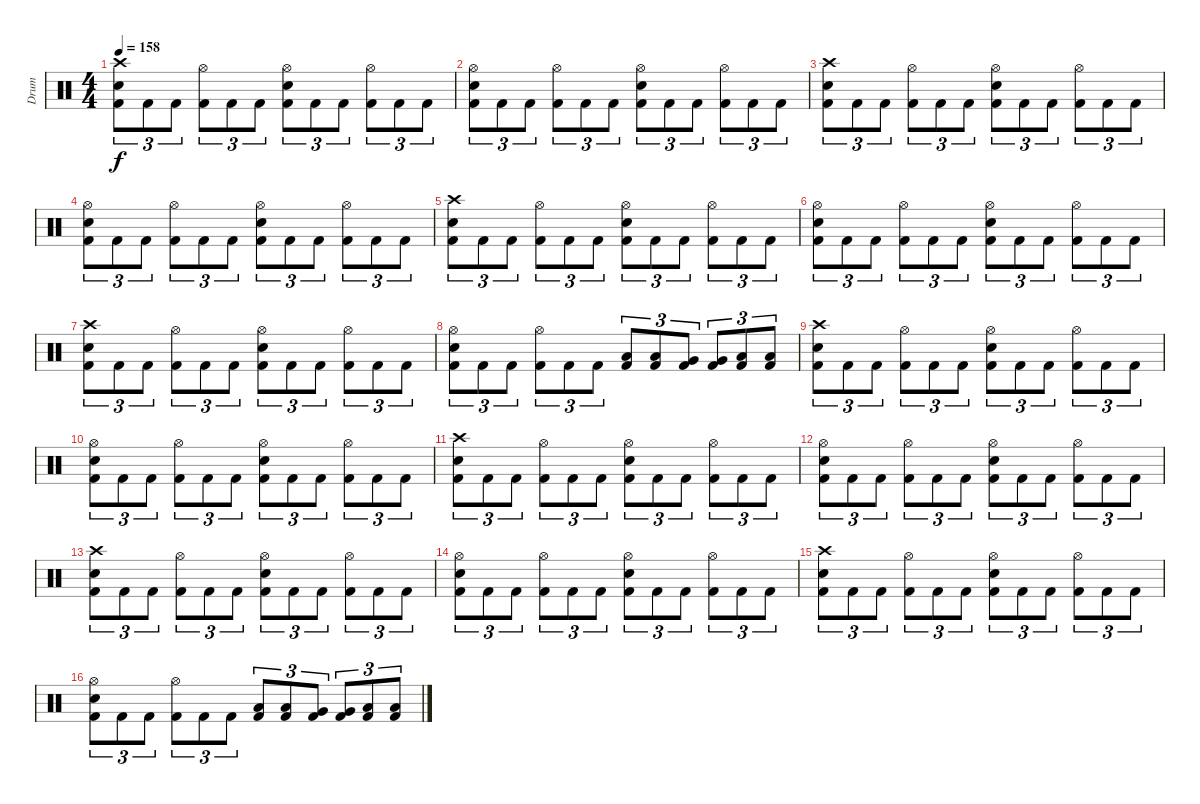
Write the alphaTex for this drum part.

\track ("Drum" "Drum") {instrument percussion}
\staff {score}
\articulation defaults
\ts (4 4)
\tempo 158
\clef neutral
\ks c
("Crash high (hit)" "Electric Snare (hit)" "Kick (hit) 2").8{tu (3 2) dy f} "Kick (hit) 2".8{tu (3 2)} "Kick (hit) 2".8{tu (3 2)} ("Hi-Hat (open)" "Kick (hit) 2").8{tu (3 2)} "Kick (hit) 2".8{tu (3 2)} "Kick (hit) 2".8{tu (3 2)} ("Hi-Hat (open)" "Electric Snare (hit)" "Kick (hit) 2").8{tu (3 2)} "Kick (hit) 2".8{tu (3 2)} "Kick (hit) 2".8{tu (3 2)} ("Hi-Hat (open)" "Kick (hit) 2").8{tu (3 2)} "Kick (hit) 2".8{tu (3 2)} "Kick (hit) 2".8{tu (3 2)} |
("Hi-Hat (open)" "Electric Snare (hit)" "Kick (hit) 2").8{tu (3 2)} "Kick (hit) 2".8{tu (3 2)} "Kick (hit) 2".8{tu (3 2)} ("Hi-Hat (open)" "Kick (hit) 2").8{tu (3 2)} "Kick (hit) 2".8{tu (3 2)} "Kick (hit) 2".8{tu (3 2)} ("Hi-Hat (open)" "Electric Snare (hit)" "Kick (hit) 2").8{tu (3 2)} "Kick (hit) 2".8{tu (3 2)} "Kick (hit) 2".8{tu (3 2)} ("Hi-Hat (open)" "Kick (hit) 2").8{tu (3 2)} "Kick (hit) 2".8{tu (3 2)} "Kick (hit) 2".8{tu (3 2)} |
("Crash high (hit)" "Electric Snare (hit)" "Kick (hit) 2").8{tu (3 2)} "Kick (hit) 2".8{tu (3 2)} "Kick (hit) 2".8{tu (3 2)} ("Hi-Hat (open)" "Kick (hit) 2").8{tu (3 2)} "Kick (hit) 2".8{tu (3 2)} "Kick (hit) 2".8{tu (3 2)} ("Hi-Hat (open)" "Electric Snare (hit)" "Kick (hit) 2").8{tu (3 2)} "Kick (hit) 2".8{tu (3 2)} "Kick (hit) 2".8{tu (3 2)} ("Hi-Hat (open)" "Kick (hit) 2").8{tu (3 2)} "Kick (hit) 2".8{tu (3 2)} "Kick (hit) 2".8{tu (3 2)} |
("Hi-Hat (open)" "Electric Snare (hit)" "Kick (hit) 2").8{tu (3 2)} "Kick (hit) 2".8{tu (3 2)} "Kick (hit) 2".8{tu (3 2)} ("Hi-Hat (open)" "Kick (hit) 2").8{tu (3 2)} "Kick (hit) 2".8{tu (3 2)} "Kick (hit) 2".8{tu (3 2)} ("Hi-Hat (open)" "Electric Snare (hit)" "Kick (hit) 2").8{tu (3 2)} "Kick (hit) 2".8{tu (3 2)} "Kick (hit) 2".8{tu (3 2)} ("Hi-Hat (open)" "Kick (hit) 2").8{tu (3 2)} "Kick (hit) 2".8{tu (3 2)} "Kick (hit) 2".8{tu (3 2)} |
("Crash high (hit)" "Electric Snare (hit)" "Kick (hit) 2").8{tu (3 2)} "Kick (hit) 2".8{tu (3 2)} "Kick (hit) 2".8{tu (3 2)} ("Hi-Hat (open)" "Kick (hit) 2").8{tu (3 2)} "Kick (hit) 2".8{tu (3 2)} "Kick (hit) 2".8{tu (3 2)} ("Hi-Hat (open)" "Electric Snare (hit)" "Kick (hit) 2").8{tu (3 2)} "Kick (hit) 2".8{tu (3 2)} "Kick (hit) 2".8{tu (3 2)} ("Hi-Hat (open)" "Kick (hit) 2").8{tu (3 2)} "Kick (hit) 2".8{tu (3 2)} "Kick (hit) 2".8{tu (3 2)} |
("Hi-Hat (open)" "Electric Snare (hit)" "Kick (hit) 2").8{tu (3 2)} "Kick (hit) 2".8{tu (3 2)} "Kick (hit) 2".8{tu (3 2)} ("Hi-Hat (open)" "Kick (hit) 2").8{tu (3 2)} "Kick (hit) 2".8{tu (3 2)} "Kick (hit) 2".8{tu (3 2)} ("Hi-Hat (open)" "Electric Snare (hit)" "Kick (hit) 2").8{tu (3 2)} "Kick (hit) 2".8{tu (3 2)} "Kick (hit) 2".8{tu (3 2)} ("Hi-Hat (open)" "Kick (hit) 2").8{tu (3 2)} "Kick (hit) 2".8{tu (3 2)} "Kick (hit) 2".8{tu (3 2)} |
("Crash high (hit)" "Electric Snare (hit)" "Kick (hit) 2").8{tu (3 2)} "Kick (hit) 2".8{tu (3 2)} "Kick (hit) 2".8{tu (3 2)} ("Hi-Hat (open)" "Kick (hit) 2").8{tu (3 2)} "Kick (hit) 2".8{tu (3 2)} "Kick (hit) 2".8{tu (3 2)} ("Hi-Hat (open)" "Electric Snare (hit)" "Kick (hit) 2").8{tu (3 2)} "Kick (hit) 2".8{tu (3 2)} "Kick (hit) 2".8{tu (3 2)} ("Hi-Hat (open)" "Kick (hit) 2").8{tu (3 2)} "Kick (hit) 2".8{tu (3 2)} "Kick (hit) 2".8{tu (3 2)} |
("Hi-Hat (open)" "Electric Snare (hit)" "Kick (hit) 2").8{tu (3 2)} "Kick (hit) 2".8{tu (3 2)} "Kick (hit) 2".8{tu (3 2)} ("Hi-Hat (open)" "Kick (hit) 2").8{tu (3 2)} "Kick (hit) 2".8{tu (3 2)} "Kick (hit) 2".8{tu (3 2)} ("Low Tom (hit)" "Kick (hit) 2").8{tu (3 2)} ("Low Tom (hit)" "Kick (hit) 2").8{tu (3 2)} ("Very Low Tom (hit)" "Kick (hit) 2").8{tu (3 2)} ("Very Low Tom (hit)" "Kick (hit) 2").8{tu (3 2)} ("Low Floor Tom (hit)" "Kick (hit) 2").8{tu (3 2)} ("Low Floor Tom (hit)" "Kick (hit) 2").8{tu (3 2)} |
("Crash high (hit)" "Electric Snare (hit)" "Kick (hit) 2").8{tu (3 2)} "Kick (hit) 2".8{tu (3 2)} "Kick (hit) 2".8{tu (3 2)} ("Hi-Hat (open)" "Kick (hit) 2").8{tu (3 2)} "Kick (hit) 2".8{tu (3 2)} "Kick (hit) 2".8{tu (3 2)} ("Hi-Hat (open)" "Electric Snare (hit)" "Kick (hit) 2").8{tu (3 2)} "Kick (hit) 2".8{tu (3 2)} "Kick (hit) 2".8{tu (3 2)} ("Hi-Hat (open)" "Kick (hit) 2").8{tu (3 2)} "Kick (hit) 2".8{tu (3 2)} "Kick (hit) 2".8{tu (3 2)} |
("Hi-Hat (open)" "Electric Snare (hit)" "Kick (hit) 2").8{tu (3 2)} "Kick (hit) 2".8{tu (3 2)} "Kick (hit) 2".8{tu (3 2)} ("Hi-Hat (open)" "Kick (hit) 2").8{tu (3 2)} "Kick (hit) 2".8{tu (3 2)} "Kick (hit) 2".8{tu (3 2)} ("Hi-Hat (open)" "Electric Snare (hit)" "Kick (hit) 2").8{tu (3 2)} "Kick (hit) 2".8{tu (3 2)} "Kick (hit) 2".8{tu (3 2)} ("Hi-Hat (open)" "Kick (hit) 2").8{tu (3 2)} "Kick (hit) 2".8{tu (3 2)} "Kick (hit) 2".8{tu (3 2)} |
("Crash high (hit)" "Electric Snare (hit)" "Kick (hit) 2").8{tu (3 2)} "Kick (hit) 2".8{tu (3 2)} "Kick (hit) 2".8{tu (3 2)} ("Hi-Hat (open)" "Kick (hit) 2").8{tu (3 2)} "Kick (hit) 2".8{tu (3 2)} "Kick (hit) 2".8{tu (3 2)} ("Hi-Hat (open)" "Electric Snare (hit)" "Kick (hit) 2").8{tu (3 2)} "Kick (hit) 2".8{tu (3 2)} "Kick (hit) 2".8{tu (3 2)} ("Hi-Hat (open)" "Kick (hit) 2").8{tu (3 2)} "Kick (hit) 2".8{tu (3 2)} "Kick (hit) 2".8{tu (3 2)} |
("Hi-Hat (open)" "Electric Snare (hit)" "Kick (hit) 2").8{tu (3 2)} "Kick (hit) 2".8{tu (3 2)} "Kick (hit) 2".8{tu (3 2)} ("Hi-Hat (open)" "Kick (hit) 2").8{tu (3 2)} "Kick (hit) 2".8{tu (3 2)} "Kick (hit) 2".8{tu (3 2)} ("Hi-Hat (open)" "Electric Snare (hit)" "Kick (hit) 2").8{tu (3 2)} "Kick (hit) 2".8{tu (3 2)} "Kick (hit) 2".8{tu (3 2)} ("Hi-Hat (open)" "Kick (hit) 2").8{tu (3 2)} "Kick (hit) 2".8{tu (3 2)} "Kick (hit) 2".8{tu (3 2)} |
("Crash high (hit)" "Electric Snare (hit)" "Kick (hit) 2").8{tu (3 2)} "Kick (hit) 2".8{tu (3 2)} "Kick (hit) 2".8{tu (3 2)} ("Hi-Hat (open)" "Kick (hit) 2").8{tu (3 2)} "Kick (hit) 2".8{tu (3 2)} "Kick (hit) 2".8{tu (3 2)} ("Hi-Hat (open)" "Electric Snare (hit)" "Kick (hit) 2").8{tu (3 2)} "Kick (hit) 2".8{tu (3 2)} "Kick (hit) 2".8{tu (3 2)} ("Hi-Hat (open)" "Kick (hit) 2").8{tu (3 2)} "Kick (hit) 2".8{tu (3 2)} "Kick (hit) 2".8{tu (3 2)} |
("Hi-Hat (open)" "Electric Snare (hit)" "Kick (hit) 2").8{tu (3 2)} "Kick (hit) 2".8{tu (3 2)} "Kick (hit) 2".8{tu (3 2)} ("Hi-Hat (open)" "Kick (hit) 2").8{tu (3 2)} "Kick (hit) 2".8{tu (3 2)} "Kick (hit) 2".8{tu (3 2)} ("Hi-Hat (open)" "Electric Snare (hit)" "Kick (hit) 2").8{tu (3 2)} "Kick (hit) 2".8{tu (3 2)} "Kick (hit) 2".8{tu (3 2)} ("Hi-Hat (open)" "Kick (hit) 2").8{tu (3 2)} "Kick (hit) 2".8{tu (3 2)} "Kick (hit) 2".8{tu (3 2)} |
("Crash high (hit)" "Electric Snare (hit)" "Kick (hit) 2").8{tu (3 2)} "Kick (hit) 2".8{tu (3 2)} "Kick (hit) 2".8{tu (3 2)} ("Hi-Hat (open)" "Kick (hit) 2").8{tu (3 2)} "Kick (hit) 2".8{tu (3 2)} "Kick (hit) 2".8{tu (3 2)} ("Hi-Hat (open)" "Electric Snare (hit)" "Kick (hit) 2").8{tu (3 2)} "Kick (hit) 2".8{tu (3 2)} "Kick (hit) 2".8{tu (3 2)} ("Hi-Hat (open)" "Kick (hit) 2").8{tu (3 2)} "Kick (hit) 2".8{tu (3 2)} "Kick (hit) 2".8{tu (3 2)} |
("Hi-Hat (open)" "Electric Snare (hit)" "Kick (hit) 2").8{tu (3 2)} "Kick (hit) 2".8{tu (3 2)} "Kick (hit) 2".8{tu (3 2)} ("Hi-Hat (open)" "Kick (hit) 2").8{tu (3 2)} "Kick (hit) 2".8{tu (3 2)} "Kick (hit) 2".8{tu (3 2)} ("Low Tom (hit)" "Kick (hit) 2").8{tu (3 2)} ("Low Tom (hit)" "Kick (hit) 2").8{tu (3 2)} ("Very Low Tom (hit)" "Kick (hit) 2").8{tu (3 2)} ("Very Low Tom (hit)" "Kick (hit) 2").8{tu (3 2)} ("Low Floor Tom (hit)" "Kick (hit) 2").8{tu (3 2)} ("Low Floor Tom (hit)" "Kick (hit) 2").8{tu (3 2)}
